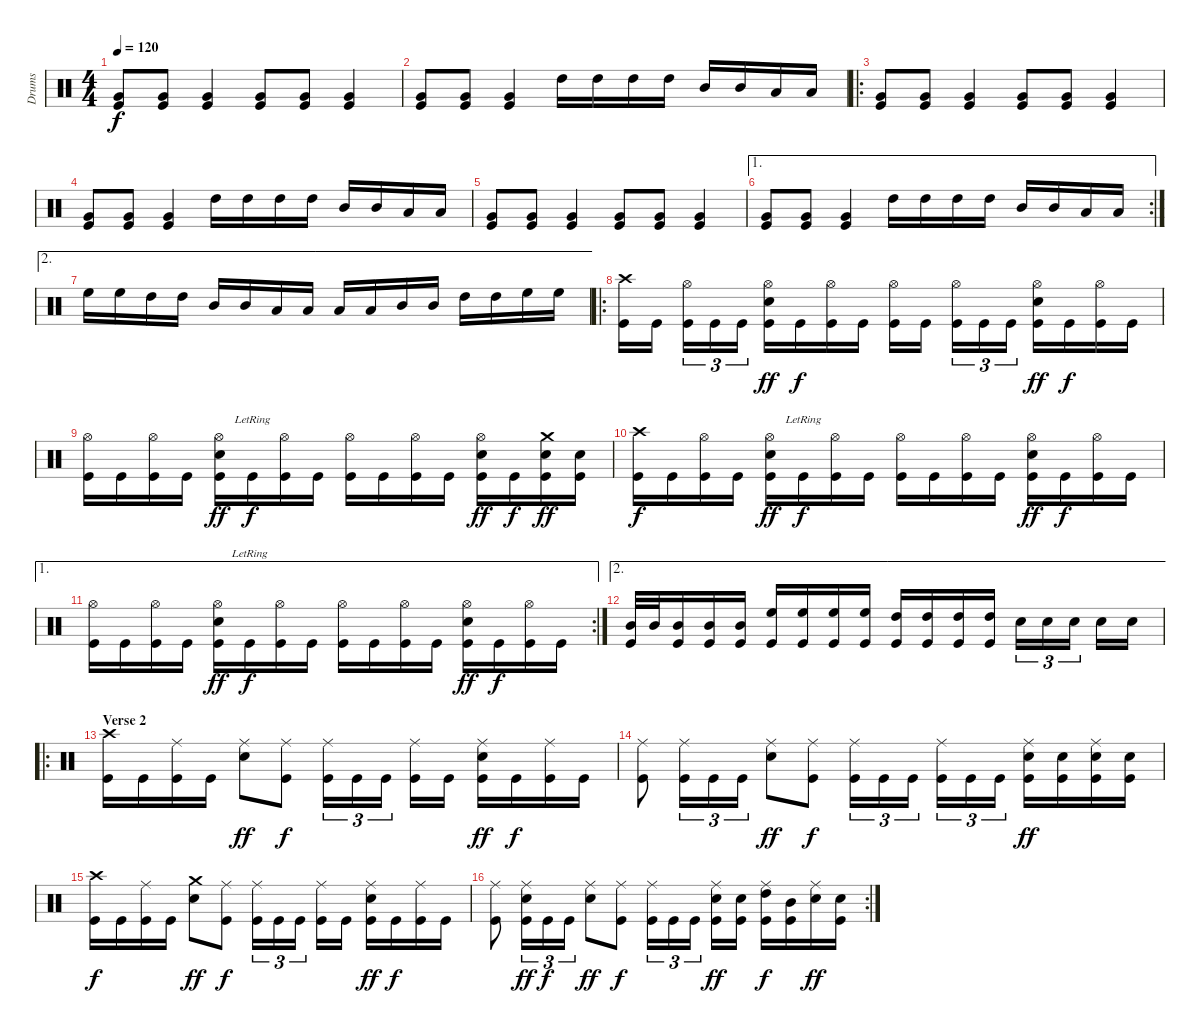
\track ("Drums" "Drums") {instrument percussion}
\staff {score}
\articulation defaults
\ts (4 4)
\tempo 120
\clef neutral
\ks c
("Very Low Tom (hit)" "Kick (hit)").8{dy f} ("Very Low Tom (hit)" "Kick (hit)").8 ("Very Low Tom (hit)" "Kick (hit)").4 ("Very Low Tom (hit)" "Kick (hit)").8 ("Very Low Tom (hit)" "Kick (hit)").8 ("Very Low Tom (hit)" "Kick (hit)").4 |
("Very Low Tom (hit)" "Kick (hit)").8 ("Very Low Tom (hit)" "Kick (hit)").8 ("Very Low Tom (hit)" "Kick (hit)").4 "High Tom (hit)".16 "High Tom (hit)".16 "High Tom (hit)".16 "High Tom (hit)".16 "Mid Tom (hit)".16 "Mid Tom (hit)".16 "Low Tom (hit)".16 "Low Tom (hit)".16 |
\ro
("Very Low Tom (hit)" "Kick (hit)").8 ("Very Low Tom (hit)" "Kick (hit)").8 ("Very Low Tom (hit)" "Kick (hit)").4 ("Very Low Tom (hit)" "Kick (hit)").8 ("Very Low Tom (hit)" "Kick (hit)").8 ("Very Low Tom (hit)" "Kick (hit)").4 |
("Very Low Tom (hit)" "Kick (hit)").8 ("Very Low Tom (hit)" "Kick (hit)").8 ("Very Low Tom (hit)" "Kick (hit)").4 "High Tom (hit)".16 "High Tom (hit)".16 "High Tom (hit)".16 "High Tom (hit)".16 "Mid Tom (hit)".16 "Mid Tom (hit)".16 "Low Tom (hit)".16 "Low Tom (hit)".16 |
("Very Low Tom (hit)" "Kick (hit)").8 ("Very Low Tom (hit)" "Kick (hit)").8 ("Very Low Tom (hit)" "Kick (hit)").4 ("Very Low Tom (hit)" "Kick (hit)").8 ("Very Low Tom (hit)" "Kick (hit)").8 ("Very Low Tom (hit)" "Kick (hit)").4 |
\ae 1
\rc 2
("Very Low Tom (hit)" "Kick (hit)").8 ("Very Low Tom (hit)" "Kick (hit)").8 ("Very Low Tom (hit)" "Kick (hit)").4 "High Tom (hit)".16 "High Tom (hit)".16 "High Tom (hit)".16 "High Tom (hit)".16 "Mid Tom (hit)".16 "Mid Tom (hit)".16 "Low Tom (hit)".16 "Low Tom (hit)".16 |
\ae 2 "High Floor Tom (hit)".16 "High Floor Tom (hit)".16 "High Tom (hit)".16 "High Tom (hit)".16 "Mid Tom (hit)".16 "Mid Tom (hit)".16 "Low Tom (hit)".16 "Low Tom (hit)".16 "Low Tom (hit)".16 "Low Tom (hit)".16 "Mid Tom (hit)".16 "Mid Tom (hit)".16 "High Tom (hit)".16 "High Tom (hit)".16 "High Floor Tom (hit)".16 "High Floor Tom (hit)".16
|
\ro
("Crash high (hit)" "Kick (hit)").16 "Kick (hit)".16 ("Hi-Hat (open)" "Kick (hit)").16{tu (3 2)} "Kick (hit)".16{tu (3 2)} "Kick (hit)".16{tu (3 2)} ("Hi-Hat (open)" "Electric Snare (hit)" "Kick (hit)").16{dy ff} "Kick (hit)".16{dy f} ("Hi-Hat (open)" "Kick (hit)").16 "Kick (hit)".16 ("Hi-Hat (open)" "Kick (hit)").16 "Kick (hit)".16 ("Hi-Hat (open)" "Kick (hit)").16{tu (3 2)} "Kick (hit)".16{tu (3 2)} "Kick (hit)".16{tu (3 2)} ("Hi-Hat (open)" "Electric Snare (hit)" "Kick (hit)").16{dy ff} "Kick (hit)".16{dy f} ("Hi-Hat (open)" "Kick (hit)").16 "Kick (hit)".16 |
("Hi-Hat (open)" "Kick (hit)").16 "Kick (hit)".16 ("Hi-Hat (open)" "Kick (hit)").16 "Kick (hit)".16 ("Hi-Hat (open)" "Electric Snare (hit)" "Kick (hit)").16{dy ff} "Kick (hit)"{lr}.16{dy f} ("Hi-Hat (open)" "Kick (hit)").16 "Kick (hit)".16 ("Hi-Hat (open)" "Kick (hit)").16 "Kick (hit)".16 ("Hi-Hat (open)" "Kick (hit)").16 "Kick (hit)".16 ("Hi-Hat (open)" "Electric Snare (hit)" "Kick (hit)").16{dy ff} "Kick (hit)".16{dy f} ("Crash medium (hit)" "Electric Snare (hit)" "Kick (hit)").16{dy ff} ("Electric Snare (hit)" "Kick (hit)").16 |
("Crash high (hit)" "Kick (hit)").16{dy f} "Kick (hit)".16 ("Hi-Hat (open)" "Kick (hit)").16 "Kick (hit)".16 ("Hi-Hat (open)" "Electric Snare (hit)" "Kick (hit)").16{dy ff} "Kick (hit)"{lr}.16{dy f} ("Hi-Hat (open)" "Kick (hit)").16 "Kick (hit)".16 ("Hi-Hat (open)" "Kick (hit)").16 "Kick (hit)".16 ("Hi-Hat (open)" "Kick (hit)").16 "Kick (hit)".16 ("Hi-Hat (open)" "Electric Snare (hit)" "Kick (hit)").16{dy ff} "Kick (hit)".16{dy f} ("Hi-Hat (open)" "Kick (hit)").16 "Kick (hit)".16 |
\ae 1
\rc 2
("Hi-Hat (open)" "Kick (hit)").16 "Kick (hit)".16 ("Hi-Hat (open)" "Kick (hit)").16 "Kick (hit)".16 ("Hi-Hat (open)" "Electric Snare (hit)" "Kick (hit)").16{dy ff} "Kick (hit)"{lr}.16{dy f} ("Hi-Hat (open)" "Kick (hit)").16 "Kick (hit)".16 ("Hi-Hat (open)" "Kick (hit)").16 "Kick (hit)".16 ("Hi-Hat (open)" "Kick (hit)").16 "Kick (hit)".16 ("Hi-Hat (open)" "Electric Snare (hit)" "Kick (hit)").16{dy ff} "Kick (hit)".16{dy f} ("Hi-Hat (open)" "Kick (hit)").16 "Kick (hit)".16 |
\ae 2
("Mid Tom (hit)" "Kick (hit)").32 "Mid Tom (hit)".32 ("Mid Tom (hit)" "Kick (hit)").16 ("Mid Tom (hit)" "Kick (hit)").16 ("Mid Tom (hit)" "Kick (hit)").16 ("High Floor Tom (hit)" "Kick (hit)").16 ("High Floor Tom (hit)" "Kick (hit)").16 ("High Floor Tom (hit)" "Kick (hit)").16 ("High Floor Tom (hit)" "Kick (hit)").16 ("High Tom (hit)" "Kick (hit)").16 ("High Tom (hit)" "Kick (hit)").16 ("High Tom (hit)" "Kick (hit)").16 ("High Tom (hit)" "Kick (hit)").16 "Electric Snare (hit)".16{tu (3 2)} "Electric Snare (hit)".16{tu (3 2)} "Electric Snare (hit)".16{tu (3 2)} "Electric Snare (hit)".16 "Electric Snare (hit)".16 |
\ro
\section ("" "Verse 2")
("Crash high (hit)" "Kick (hit)").16 "Kick (hit)".16 ("Ride (middle)" "Kick (hit)").16 "Kick (hit)".16 ("Ride (middle)" "Electric Snare (hit)").8{dy ff} ("Ride (middle)" "Kick (hit)").8{dy f} ("Ride (middle)" "Kick (hit)").16{tu (3 2)} "Kick (hit)".16{tu (3 2)} "Kick (hit)".16{tu (3 2)} ("Ride (middle)" "Kick (hit)").16 "Kick (hit)".16 ("Ride (middle)" "Electric Snare (hit)" "Kick (hit)").16{dy ff} "Kick (hit)".16{dy f} ("Ride (middle)" "Kick (hit)").16 "Kick (hit)".16 |
("Ride (middle)" "Kick (hit)").8 ("Ride (middle)" "Kick (hit)").16{tu (3 2)} "Kick (hit)".16{tu (3 2)} "Kick (hit)".16{tu (3 2)} ("Ride (middle)" "Electric Snare (hit)").8{dy ff} ("Ride (middle)" "Kick (hit)").8{dy f} ("Ride (middle)" "Kick (hit)").16{tu (3 2)} "Kick (hit)".16{tu (3 2)} "Kick (hit)".16{tu (3 2)} ("Ride (middle)" "Kick (hit)").16{tu (3 2)} "Kick (hit)".16{tu (3 2)} "Kick (hit)".16{tu (3 2)} ("Ride (middle)" "Electric Snare (hit)" "Kick (hit)").16{dy ff} ("Electric Snare (hit)" "Kick (hit)").16 ("Ride (middle)" "Electric Snare (hit)" "Kick (hit)").16 ("Electric Snare (hit)" "Kick (hit)").16 |
("Crash high (hit)" "Kick (hit)").16{dy f} "Kick (hit)".16 ("Ride (middle)" "Kick (hit)").16 "Kick (hit)".16 ("Crash medium (hit)" "Electric Snare (hit)").8{dy ff} ("Ride (middle)" "Kick (hit)").8{dy f} ("Ride (middle)" "Kick (hit)").16{tu (3 2)} "Kick (hit)".16{tu (3 2)} "Kick (hit)".16{tu (3 2)} ("Ride (middle)" "Kick (hit)").16 "Kick (hit)".16 ("Ride (middle)" "Electric Snare (hit)" "Kick (hit)").16{dy ff} "Kick (hit)".16{dy f} ("Ride (middle)" "Kick (hit)").16 "Kick (hit)".16 |
\rc 2
("Ride (middle)" "Kick (hit)").8 ("Ride (middle)" "Electric Snare (hit)" "Kick (hit)").16{tu (3 2) dy ff} "Kick (hit)".16{tu (3 2) dy f} "Kick (hit)".16{tu (3 2)} ("Ride (middle)" "Electric Snare (hit)").8{dy ff} ("Ride (middle)" "Kick (hit)").8{dy f} ("Ride (middle)" "Kick (hit)").16{tu (3 2)} "Kick (hit)".16{tu (3 2)} "Kick (hit)".16{tu (3 2)} ("Ride (middle)" "Electric Snare (hit)" "Kick (hit)").16{dy ff} ("Electric Snare (hit)" "Kick (hit)").16 ("Ride (middle)" "High Tom (hit)" "Kick (hit)").16{dy f} ("Mid Tom (hit)" "Kick (hit)").16 ("Ride (middle)" "Electric Snare (hit)").16{dy ff} ("Electric Snare (hit)" "Kick (hit)").16
